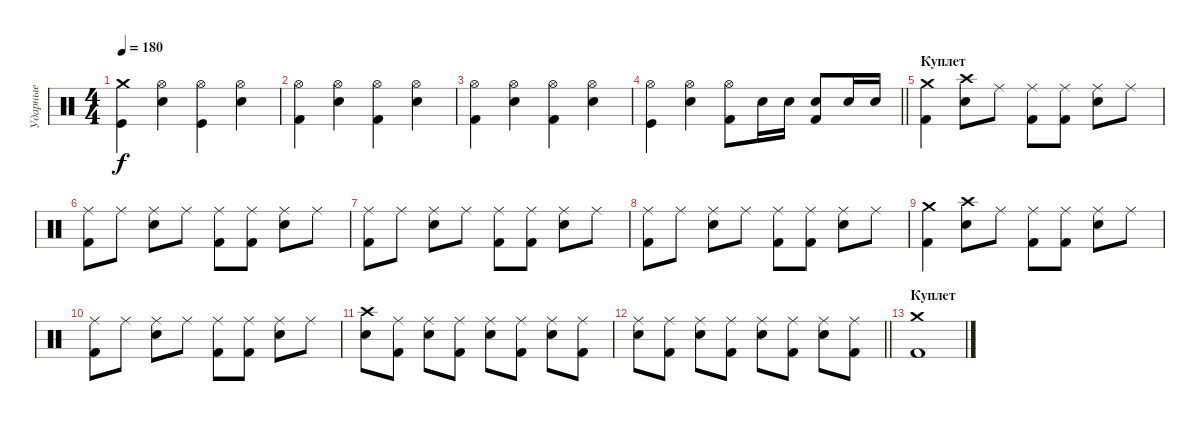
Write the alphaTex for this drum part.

\track ("Ударные" "Ударные") {instrument percussion}
\staff {score}
\articulation defaults
\ts (4 4)
\tempo 180
\clef neutral
\ks c
("Crash medium (hit)" "Kick (hit)").4{dy f} ("Hi-Hat (open)" "Electric Snare (hit)").4 ("Hi-Hat (open)" "Kick (hit)").4 ("Hi-Hat (open)" "Electric Snare (hit)").4 |
("Hi-Hat (open)" "Kick (hit) 2").4 ("Hi-Hat (open)" "Electric Snare (hit)").4 ("Hi-Hat (open)" "Kick (hit) 2").4 ("Hi-Hat (open)" "Electric Snare (hit)").4 |
("Hi-Hat (open)" "Kick (hit) 2").4 ("Hi-Hat (open)" "Electric Snare (hit)").4 ("Hi-Hat (open)" "Kick (hit) 2").4 ("Hi-Hat (open)" "Electric Snare (hit)").4 |
\barLineRight lightlight
("Hi-Hat (open)" "Kick (hit)").4 ("Hi-Hat (open)" "Electric Snare (hit)").4 ("Hi-Hat (open)" "Kick (hit) 2").8 "Electric Snare (hit)".16 "Electric Snare (hit)".16 ("Kick (hit) 2" "Electric Snare (hit)").8 "Electric Snare (hit)".16 "Electric Snare (hit)".16 |
\section ("" "Куплет")
("Crash medium (hit)" "Kick (hit) 2").4 ("Crash high (hit)" "Electric Snare (hit)").8 "Ride (middle)".8 ("Ride (middle)" "Kick (hit) 2").8 ("Ride (middle)" "Kick (hit) 2").8 ("Ride (middle)" "Electric Snare (hit)").8 "Ride (middle)".8 |
("Ride (middle)" "Kick (hit) 2").8 "Ride (middle)".8 ("Ride (middle)" "Electric Snare (hit)").8 "Ride (middle)".8 ("Ride (middle)" "Kick (hit) 2").8 ("Ride (middle)" "Kick (hit) 2").8 ("Ride (middle)" "Electric Snare (hit)").8 "Ride (middle)".8 |
("Ride (middle)" "Kick (hit) 2").8 "Ride (middle)".8 ("Ride (middle)" "Electric Snare (hit)").8 "Ride (middle)".8 ("Ride (middle)" "Kick (hit) 2").8 ("Ride (middle)" "Kick (hit) 2").8 ("Ride (middle)" "Electric Snare (hit)").8 "Ride (middle)".8 |
("Ride (middle)" "Kick (hit) 2").8 "Ride (middle)".8 ("Ride (middle)" "Electric Snare (hit)").8 "Ride (middle)".8 ("Ride (middle)" "Kick (hit) 2").8 ("Ride (middle)" "Kick (hit) 2").8 ("Ride (middle)" "Electric Snare (hit)").8 "Ride (middle)".8 |
("Crash medium (hit)" "Kick (hit) 2").4 ("Crash high (hit)" "Electric Snare (hit)").8 "Ride (middle)".8 ("Ride (middle)" "Kick (hit) 2").8 ("Ride (middle)" "Kick (hit) 2").8 ("Ride (middle)" "Electric Snare (hit)").8 "Ride (middle)".8 |
("Ride (middle)" "Kick (hit) 2").8 "Ride (middle)".8 ("Ride (middle)" "Electric Snare (hit)").8 "Ride (middle)".8 ("Ride (middle)" "Kick (hit) 2").8 ("Ride (middle)" "Kick (hit) 2").8 ("Ride (middle)" "Electric Snare (hit)").8 "Ride (middle)".8 |
("Crash high (hit)" "Electric Snare (hit)").8 ("Ride (middle)" "Kick (hit) 2").8 ("Ride (middle)" "Electric Snare (hit)").8 ("Ride (middle)" "Kick (hit) 2").8 ("Ride (middle)" "Electric Snare (hit)").8 ("Ride (middle)" "Kick (hit) 2").8 ("Ride (middle)" "Electric Snare (hit)").8 ("Ride (middle)" "Kick (hit) 2").8 |
\barLineRight lightlight
("Ride (middle)" "Electric Snare (hit)").8 ("Ride (middle)" "Kick (hit) 2").8 ("Ride (middle)" "Electric Snare (hit)").8 ("Ride (middle)" "Kick (hit) 2").8 ("Ride (middle)" "Electric Snare (hit)").8 ("Ride (middle)" "Kick (hit) 2").8 ("Ride (middle)" "Electric Snare (hit)").8 ("Ride (middle)" "Kick (hit) 2").8 |
\section ("" "Куплет")
("Crash medium (hit)" "Kick (hit) 2").1
